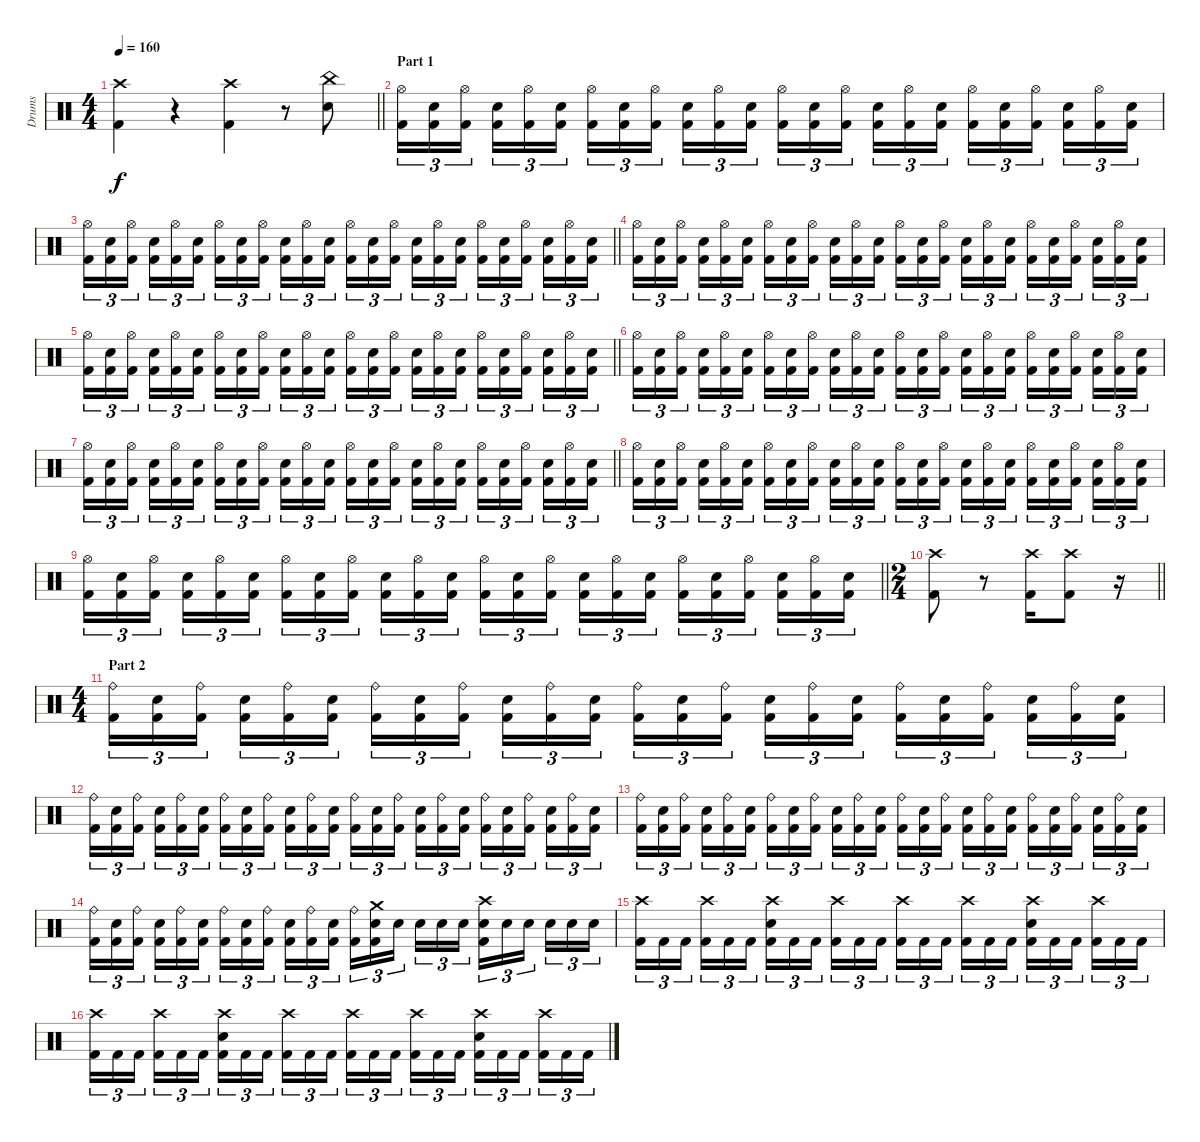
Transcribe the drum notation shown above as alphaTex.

\track ("Drums" "Drums") {instrument percussion}
\staff {score}
\articulation defaults
\ts (4 4)
\tempo 160
\clef neutral
\barLineRight lightlight
\ks c
("Crash high (hit)" "Kick (hit) 2").4{dy f} r.4 ("Crash high (hit)" "Kick (hit) 2").4 r.8 ("China (hit)" "Electric Snare (hit)").8 |
\section ("" "Part 1")
("Hi-Hat (open)" "Kick (hit) 2").16{tu (3 2)} ("Electric Snare (hit)" "Kick (hit) 2").16{tu (3 2)} ("Hi-Hat (open)" "Kick (hit) 2").16{tu (3 2) beam splitsecondary} ("Electric Snare (hit)" "Kick (hit) 2").16{tu (3 2)} ("Hi-Hat (open)" "Kick (hit) 2").16{tu (3 2)} ("Electric Snare (hit)" "Kick (hit) 2").16{tu (3 2)} ("Hi-Hat (open)" "Kick (hit) 2").16{tu (3 2)} ("Electric Snare (hit)" "Kick (hit) 2").16{tu (3 2)} ("Hi-Hat (open)" "Kick (hit) 2").16{tu (3 2) beam splitsecondary} ("Electric Snare (hit)" "Kick (hit) 2").16{tu (3 2)} ("Hi-Hat (open)" "Kick (hit) 2").16{tu (3 2)} ("Electric Snare (hit)" "Kick (hit) 2").16{tu (3 2)} ("Hi-Hat (open)" "Kick (hit) 2").16{tu (3 2)} ("Electric Snare (hit)" "Kick (hit) 2").16{tu (3 2)} ("Hi-Hat (open)" "Kick (hit) 2").16{tu (3 2) beam splitsecondary} ("Electric Snare (hit)" "Kick (hit) 2").16{tu (3 2)} ("Hi-Hat (open)" "Kick (hit) 2").16{tu (3 2)} ("Electric Snare (hit)" "Kick (hit) 2").16{tu (3 2)} ("Hi-Hat (open)" "Kick (hit) 2").16{tu (3 2)} ("Electric Snare (hit)" "Kick (hit) 2").16{tu (3 2)} ("Hi-Hat (open)" "Kick (hit) 2").16{tu (3 2) beam splitsecondary} ("Electric Snare (hit)" "Kick (hit) 2").16{tu (3 2)} ("Hi-Hat (open)" "Kick (hit) 2").16{tu (3 2)} ("Electric Snare (hit)" "Kick (hit) 2").16{tu (3 2)} |
\barLineRight lightlight
("Hi-Hat (open)" "Kick (hit) 2").16{tu (3 2)} ("Electric Snare (hit)" "Kick (hit) 2").16{tu (3 2)} ("Hi-Hat (open)" "Kick (hit) 2").16{tu (3 2) beam splitsecondary} ("Electric Snare (hit)" "Kick (hit) 2").16{tu (3 2)} ("Hi-Hat (open)" "Kick (hit) 2").16{tu (3 2)} ("Electric Snare (hit)" "Kick (hit) 2").16{tu (3 2)} ("Hi-Hat (open)" "Kick (hit) 2").16{tu (3 2)} ("Electric Snare (hit)" "Kick (hit) 2").16{tu (3 2)} ("Hi-Hat (open)" "Kick (hit) 2").16{tu (3 2) beam splitsecondary} ("Electric Snare (hit)" "Kick (hit) 2").16{tu (3 2)} ("Hi-Hat (open)" "Kick (hit) 2").16{tu (3 2)} ("Electric Snare (hit)" "Kick (hit) 2").16{tu (3 2)} ("Hi-Hat (open)" "Kick (hit) 2").16{tu (3 2)} ("Electric Snare (hit)" "Kick (hit) 2").16{tu (3 2)} ("Hi-Hat (open)" "Kick (hit) 2").16{tu (3 2) beam splitsecondary} ("Electric Snare (hit)" "Kick (hit) 2").16{tu (3 2)} ("Hi-Hat (open)" "Kick (hit) 2").16{tu (3 2)} ("Electric Snare (hit)" "Kick (hit) 2").16{tu (3 2)} ("Hi-Hat (open)" "Kick (hit) 2").16{tu (3 2)} ("Electric Snare (hit)" "Kick (hit) 2").16{tu (3 2)} ("Hi-Hat (open)" "Kick (hit) 2").16{tu (3 2) beam splitsecondary} ("Electric Snare (hit)" "Kick (hit) 2").16{tu (3 2)} ("Hi-Hat (open)" "Kick (hit) 2").16{tu (3 2)} ("Electric Snare (hit)" "Kick (hit) 2").16{tu (3 2)} |
("Hi-Hat (open)" "Kick (hit) 2").16{tu (3 2)} ("Electric Snare (hit)" "Kick (hit) 2").16{tu (3 2)} ("Hi-Hat (open)" "Kick (hit) 2").16{tu (3 2) beam splitsecondary} ("Electric Snare (hit)" "Kick (hit) 2").16{tu (3 2)} ("Hi-Hat (open)" "Kick (hit) 2").16{tu (3 2)} ("Electric Snare (hit)" "Kick (hit) 2").16{tu (3 2)} ("Hi-Hat (open)" "Kick (hit) 2").16{tu (3 2)} ("Electric Snare (hit)" "Kick (hit) 2").16{tu (3 2)} ("Hi-Hat (open)" "Kick (hit) 2").16{tu (3 2) beam splitsecondary} ("Electric Snare (hit)" "Kick (hit) 2").16{tu (3 2)} ("Hi-Hat (open)" "Kick (hit) 2").16{tu (3 2)} ("Electric Snare (hit)" "Kick (hit) 2").16{tu (3 2)} ("Hi-Hat (open)" "Kick (hit) 2").16{tu (3 2)} ("Electric Snare (hit)" "Kick (hit) 2").16{tu (3 2)} ("Hi-Hat (open)" "Kick (hit) 2").16{tu (3 2) beam splitsecondary} ("Electric Snare (hit)" "Kick (hit) 2").16{tu (3 2)} ("Hi-Hat (open)" "Kick (hit) 2").16{tu (3 2)} ("Electric Snare (hit)" "Kick (hit) 2").16{tu (3 2)} ("Hi-Hat (open)" "Kick (hit) 2").16{tu (3 2)} ("Electric Snare (hit)" "Kick (hit) 2").16{tu (3 2)} ("Hi-Hat (open)" "Kick (hit) 2").16{tu (3 2) beam splitsecondary} ("Electric Snare (hit)" "Kick (hit) 2").16{tu (3 2)} ("Hi-Hat (open)" "Kick (hit) 2").16{tu (3 2)} ("Electric Snare (hit)" "Kick (hit) 2").16{tu (3 2)} |
\barLineRight lightlight
("Hi-Hat (open)" "Kick (hit) 2").16{tu (3 2)} ("Electric Snare (hit)" "Kick (hit) 2").16{tu (3 2)} ("Hi-Hat (open)" "Kick (hit) 2").16{tu (3 2) beam splitsecondary} ("Electric Snare (hit)" "Kick (hit) 2").16{tu (3 2)} ("Hi-Hat (open)" "Kick (hit) 2").16{tu (3 2)} ("Electric Snare (hit)" "Kick (hit) 2").16{tu (3 2)} ("Hi-Hat (open)" "Kick (hit) 2").16{tu (3 2)} ("Electric Snare (hit)" "Kick (hit) 2").16{tu (3 2)} ("Hi-Hat (open)" "Kick (hit) 2").16{tu (3 2) beam splitsecondary} ("Electric Snare (hit)" "Kick (hit) 2").16{tu (3 2)} ("Hi-Hat (open)" "Kick (hit) 2").16{tu (3 2)} ("Electric Snare (hit)" "Kick (hit) 2").16{tu (3 2)} ("Hi-Hat (open)" "Kick (hit) 2").16{tu (3 2)} ("Electric Snare (hit)" "Kick (hit) 2").16{tu (3 2)} ("Hi-Hat (open)" "Kick (hit) 2").16{tu (3 2) beam splitsecondary} ("Electric Snare (hit)" "Kick (hit) 2").16{tu (3 2)} ("Hi-Hat (open)" "Kick (hit) 2").16{tu (3 2)} ("Electric Snare (hit)" "Kick (hit) 2").16{tu (3 2)} ("Hi-Hat (open)" "Kick (hit) 2").16{tu (3 2)} ("Electric Snare (hit)" "Kick (hit) 2").16{tu (3 2)} ("Hi-Hat (open)" "Kick (hit) 2").16{tu (3 2) beam splitsecondary} ("Electric Snare (hit)" "Kick (hit) 2").16{tu (3 2)} ("Hi-Hat (open)" "Kick (hit) 2").16{tu (3 2)} ("Electric Snare (hit)" "Kick (hit) 2").16{tu (3 2)} |
("Hi-Hat (open)" "Kick (hit) 2").16{tu (3 2)} ("Electric Snare (hit)" "Kick (hit) 2").16{tu (3 2)} ("Hi-Hat (open)" "Kick (hit) 2").16{tu (3 2) beam splitsecondary} ("Electric Snare (hit)" "Kick (hit) 2").16{tu (3 2)} ("Hi-Hat (open)" "Kick (hit) 2").16{tu (3 2)} ("Electric Snare (hit)" "Kick (hit) 2").16{tu (3 2)} ("Hi-Hat (open)" "Kick (hit) 2").16{tu (3 2)} ("Electric Snare (hit)" "Kick (hit) 2").16{tu (3 2)} ("Hi-Hat (open)" "Kick (hit) 2").16{tu (3 2) beam splitsecondary} ("Electric Snare (hit)" "Kick (hit) 2").16{tu (3 2)} ("Hi-Hat (open)" "Kick (hit) 2").16{tu (3 2)} ("Electric Snare (hit)" "Kick (hit) 2").16{tu (3 2)} ("Hi-Hat (open)" "Kick (hit) 2").16{tu (3 2)} ("Electric Snare (hit)" "Kick (hit) 2").16{tu (3 2)} ("Hi-Hat (open)" "Kick (hit) 2").16{tu (3 2) beam splitsecondary} ("Electric Snare (hit)" "Kick (hit) 2").16{tu (3 2)} ("Hi-Hat (open)" "Kick (hit) 2").16{tu (3 2)} ("Electric Snare (hit)" "Kick (hit) 2").16{tu (3 2)} ("Hi-Hat (open)" "Kick (hit) 2").16{tu (3 2)} ("Electric Snare (hit)" "Kick (hit) 2").16{tu (3 2)} ("Hi-Hat (open)" "Kick (hit) 2").16{tu (3 2) beam splitsecondary} ("Electric Snare (hit)" "Kick (hit) 2").16{tu (3 2)} ("Hi-Hat (open)" "Kick (hit) 2").16{tu (3 2)} ("Electric Snare (hit)" "Kick (hit) 2").16{tu (3 2)} |
\barLineRight lightlight
("Hi-Hat (open)" "Kick (hit) 2").16{tu (3 2)} ("Electric Snare (hit)" "Kick (hit) 2").16{tu (3 2)} ("Hi-Hat (open)" "Kick (hit) 2").16{tu (3 2) beam splitsecondary} ("Electric Snare (hit)" "Kick (hit) 2").16{tu (3 2)} ("Hi-Hat (open)" "Kick (hit) 2").16{tu (3 2)} ("Electric Snare (hit)" "Kick (hit) 2").16{tu (3 2)} ("Hi-Hat (open)" "Kick (hit) 2").16{tu (3 2)} ("Electric Snare (hit)" "Kick (hit) 2").16{tu (3 2)} ("Hi-Hat (open)" "Kick (hit) 2").16{tu (3 2) beam splitsecondary} ("Electric Snare (hit)" "Kick (hit) 2").16{tu (3 2)} ("Hi-Hat (open)" "Kick (hit) 2").16{tu (3 2)} ("Electric Snare (hit)" "Kick (hit) 2").16{tu (3 2)} ("Hi-Hat (open)" "Kick (hit) 2").16{tu (3 2)} ("Electric Snare (hit)" "Kick (hit) 2").16{tu (3 2)} ("Hi-Hat (open)" "Kick (hit) 2").16{tu (3 2) beam splitsecondary} ("Electric Snare (hit)" "Kick (hit) 2").16{tu (3 2)} ("Hi-Hat (open)" "Kick (hit) 2").16{tu (3 2)} ("Electric Snare (hit)" "Kick (hit) 2").16{tu (3 2)} ("Hi-Hat (open)" "Kick (hit) 2").16{tu (3 2)} ("Electric Snare (hit)" "Kick (hit) 2").16{tu (3 2)} ("Hi-Hat (open)" "Kick (hit) 2").16{tu (3 2) beam splitsecondary} ("Electric Snare (hit)" "Kick (hit) 2").16{tu (3 2)} ("Hi-Hat (open)" "Kick (hit) 2").16{tu (3 2)} ("Electric Snare (hit)" "Kick (hit) 2").16{tu (3 2)} |
("Hi-Hat (open)" "Kick (hit) 2").16{tu (3 2)} ("Electric Snare (hit)" "Kick (hit) 2").16{tu (3 2)} ("Hi-Hat (open)" "Kick (hit) 2").16{tu (3 2) beam splitsecondary} ("Electric Snare (hit)" "Kick (hit) 2").16{tu (3 2)} ("Hi-Hat (open)" "Kick (hit) 2").16{tu (3 2)} ("Electric Snare (hit)" "Kick (hit) 2").16{tu (3 2)} ("Hi-Hat (open)" "Kick (hit) 2").16{tu (3 2)} ("Electric Snare (hit)" "Kick (hit) 2").16{tu (3 2)} ("Hi-Hat (open)" "Kick (hit) 2").16{tu (3 2) beam splitsecondary} ("Electric Snare (hit)" "Kick (hit) 2").16{tu (3 2)} ("Hi-Hat (open)" "Kick (hit) 2").16{tu (3 2)} ("Electric Snare (hit)" "Kick (hit) 2").16{tu (3 2)} ("Hi-Hat (open)" "Kick (hit) 2").16{tu (3 2)} ("Electric Snare (hit)" "Kick (hit) 2").16{tu (3 2)} ("Hi-Hat (open)" "Kick (hit) 2").16{tu (3 2) beam splitsecondary} ("Electric Snare (hit)" "Kick (hit) 2").16{tu (3 2)} ("Hi-Hat (open)" "Kick (hit) 2").16{tu (3 2)} ("Electric Snare (hit)" "Kick (hit) 2").16{tu (3 2)} ("Hi-Hat (open)" "Kick (hit) 2").16{tu (3 2)} ("Electric Snare (hit)" "Kick (hit) 2").16{tu (3 2)} ("Hi-Hat (open)" "Kick (hit) 2").16{tu (3 2) beam splitsecondary} ("Electric Snare (hit)" "Kick (hit) 2").16{tu (3 2)} ("Hi-Hat (open)" "Kick (hit) 2").16{tu (3 2)} ("Electric Snare (hit)" "Kick (hit) 2").16{tu (3 2)} |
\barLineRight lightlight
("Hi-Hat (open)" "Kick (hit) 2").16{tu (3 2)} ("Electric Snare (hit)" "Kick (hit) 2").16{tu (3 2)} ("Hi-Hat (open)" "Kick (hit) 2").16{tu (3 2) beam splitsecondary} ("Electric Snare (hit)" "Kick (hit) 2").16{tu (3 2)} ("Hi-Hat (open)" "Kick (hit) 2").16{tu (3 2)} ("Electric Snare (hit)" "Kick (hit) 2").16{tu (3 2)} ("Hi-Hat (open)" "Kick (hit) 2").16{tu (3 2)} ("Electric Snare (hit)" "Kick (hit) 2").16{tu (3 2)} ("Hi-Hat (open)" "Kick (hit) 2").16{tu (3 2) beam splitsecondary} ("Electric Snare (hit)" "Kick (hit) 2").16{tu (3 2)} ("Hi-Hat (open)" "Kick (hit) 2").16{tu (3 2)} ("Electric Snare (hit)" "Kick (hit) 2").16{tu (3 2)} ("Hi-Hat (open)" "Kick (hit) 2").16{tu (3 2)} ("Electric Snare (hit)" "Kick (hit) 2").16{tu (3 2)} ("Hi-Hat (open)" "Kick (hit) 2").16{tu (3 2) beam splitsecondary} ("Electric Snare (hit)" "Kick (hit) 2").16{tu (3 2)} ("Hi-Hat (open)" "Kick (hit) 2").16{tu (3 2)} ("Electric Snare (hit)" "Kick (hit) 2").16{tu (3 2)} ("Hi-Hat (open)" "Kick (hit) 2").16{tu (3 2)} ("Electric Snare (hit)" "Kick (hit) 2").16{tu (3 2)} ("Hi-Hat (open)" "Kick (hit) 2").16{tu (3 2) beam splitsecondary} ("Electric Snare (hit)" "Kick (hit) 2").16{tu (3 2)} ("Hi-Hat (open)" "Kick (hit) 2").16{tu (3 2)} ("Electric Snare (hit)" "Kick (hit) 2").16{tu (3 2)} |
\ts (2 4)
\barLineRight lightlight
("Crash high (hit)" "Kick (hit) 2").8 r.8 ("Crash high (hit)" "Kick (hit) 2").16 ("Crash high (hit)" "Kick (hit) 2").8 r.16 |
\ts (4 4)
\section ("" "Part 2")
("Ride (bell)" "Kick (hit) 2").16{tu (3 2)} ("Electric Snare (hit)" "Kick (hit) 2").16{tu (3 2)} ("Ride (bell)" "Kick (hit) 2").16{tu (3 2) beam splitsecondary} ("Electric Snare (hit)" "Kick (hit) 2").16{tu (3 2)} ("Ride (bell)" "Kick (hit) 2").16{tu (3 2)} ("Electric Snare (hit)" "Kick (hit) 2").16{tu (3 2)} ("Ride (bell)" "Kick (hit) 2").16{tu (3 2)} ("Electric Snare (hit)" "Kick (hit) 2").16{tu (3 2)} ("Ride (bell)" "Kick (hit) 2").16{tu (3 2) beam splitsecondary} ("Electric Snare (hit)" "Kick (hit) 2").16{tu (3 2)} ("Ride (bell)" "Kick (hit) 2").16{tu (3 2)} ("Electric Snare (hit)" "Kick (hit) 2").16{tu (3 2)} ("Ride (bell)" "Kick (hit) 2").16{tu (3 2)} ("Electric Snare (hit)" "Kick (hit) 2").16{tu (3 2)} ("Ride (bell)" "Kick (hit) 2").16{tu (3 2) beam splitsecondary} ("Electric Snare (hit)" "Kick (hit) 2").16{tu (3 2)} ("Ride (bell)" "Kick (hit) 2").16{tu (3 2)} ("Electric Snare (hit)" "Kick (hit) 2").16{tu (3 2)} ("Ride (bell)" "Kick (hit) 2").16{tu (3 2)} ("Electric Snare (hit)" "Kick (hit) 2").16{tu (3 2)} ("Ride (bell)" "Kick (hit) 2").16{tu (3 2) beam splitsecondary} ("Electric Snare (hit)" "Kick (hit) 2").16{tu (3 2)} ("Ride (bell)" "Kick (hit) 2").16{tu (3 2)} ("Electric Snare (hit)" "Kick (hit) 2").16{tu (3 2)} |
("Ride (bell)" "Kick (hit) 2").16{tu (3 2)} ("Electric Snare (hit)" "Kick (hit) 2").16{tu (3 2)} ("Ride (bell)" "Kick (hit) 2").16{tu (3 2) beam splitsecondary} ("Electric Snare (hit)" "Kick (hit) 2").16{tu (3 2)} ("Ride (bell)" "Kick (hit) 2").16{tu (3 2)} ("Electric Snare (hit)" "Kick (hit) 2").16{tu (3 2)} ("Ride (bell)" "Kick (hit) 2").16{tu (3 2)} ("Electric Snare (hit)" "Kick (hit) 2").16{tu (3 2)} ("Ride (bell)" "Kick (hit) 2").16{tu (3 2) beam splitsecondary} ("Electric Snare (hit)" "Kick (hit) 2").16{tu (3 2)} ("Ride (bell)" "Kick (hit) 2").16{tu (3 2)} ("Electric Snare (hit)" "Kick (hit) 2").16{tu (3 2)} ("Ride (bell)" "Kick (hit) 2").16{tu (3 2)} ("Electric Snare (hit)" "Kick (hit) 2").16{tu (3 2)} ("Ride (bell)" "Kick (hit) 2").16{tu (3 2) beam splitsecondary} ("Electric Snare (hit)" "Kick (hit) 2").16{tu (3 2)} ("Ride (bell)" "Kick (hit) 2").16{tu (3 2)} ("Electric Snare (hit)" "Kick (hit) 2").16{tu (3 2)} ("Ride (bell)" "Kick (hit) 2").16{tu (3 2)} ("Electric Snare (hit)" "Kick (hit) 2").16{tu (3 2)} ("Ride (bell)" "Kick (hit) 2").16{tu (3 2) beam splitsecondary} ("Electric Snare (hit)" "Kick (hit) 2").16{tu (3 2)} ("Ride (bell)" "Kick (hit) 2").16{tu (3 2)} ("Electric Snare (hit)" "Kick (hit) 2").16{tu (3 2)} |
("Ride (bell)" "Kick (hit) 2").16{tu (3 2)} ("Electric Snare (hit)" "Kick (hit) 2").16{tu (3 2)} ("Ride (bell)" "Kick (hit) 2").16{tu (3 2) beam splitsecondary} ("Electric Snare (hit)" "Kick (hit) 2").16{tu (3 2)} ("Ride (bell)" "Kick (hit) 2").16{tu (3 2)} ("Electric Snare (hit)" "Kick (hit) 2").16{tu (3 2)} ("Ride (bell)" "Kick (hit) 2").16{tu (3 2)} ("Electric Snare (hit)" "Kick (hit) 2").16{tu (3 2)} ("Ride (bell)" "Kick (hit) 2").16{tu (3 2) beam splitsecondary} ("Electric Snare (hit)" "Kick (hit) 2").16{tu (3 2)} ("Ride (bell)" "Kick (hit) 2").16{tu (3 2)} ("Electric Snare (hit)" "Kick (hit) 2").16{tu (3 2)} ("Ride (bell)" "Kick (hit) 2").16{tu (3 2)} ("Electric Snare (hit)" "Kick (hit) 2").16{tu (3 2)} ("Ride (bell)" "Kick (hit) 2").16{tu (3 2) beam splitsecondary} ("Electric Snare (hit)" "Kick (hit) 2").16{tu (3 2)} ("Ride (bell)" "Kick (hit) 2").16{tu (3 2)} ("Electric Snare (hit)" "Kick (hit) 2").16{tu (3 2)} ("Ride (bell)" "Kick (hit) 2").16{tu (3 2)} ("Electric Snare (hit)" "Kick (hit) 2").16{tu (3 2)} ("Ride (bell)" "Kick (hit) 2").16{tu (3 2) beam splitsecondary} ("Electric Snare (hit)" "Kick (hit) 2").16{tu (3 2)} ("Ride (bell)" "Kick (hit) 2").16{tu (3 2)} ("Electric Snare (hit)" "Kick (hit) 2").16{tu (3 2)} |
("Ride (bell)" "Kick (hit) 2").16{tu (3 2)} ("Electric Snare (hit)" "Kick (hit) 2").16{tu (3 2)} ("Ride (bell)" "Kick (hit) 2").16{tu (3 2) beam splitsecondary} ("Electric Snare (hit)" "Kick (hit) 2").16{tu (3 2)} ("Ride (bell)" "Kick (hit) 2").16{tu (3 2)} ("Electric Snare (hit)" "Kick (hit) 2").16{tu (3 2)} ("Ride (bell)" "Kick (hit) 2").16{tu (3 2)} ("Electric Snare (hit)" "Kick (hit) 2").16{tu (3 2)} ("Ride (bell)" "Kick (hit) 2").16{tu (3 2) beam splitsecondary} ("Electric Snare (hit)" "Kick (hit) 2").16{tu (3 2)} ("Ride (bell)" "Kick (hit) 2").16{tu (3 2)} ("Electric Snare (hit)" "Kick (hit) 2").16{tu (3 2)} ("Ride (bell)" "Kick (hit) 2").16{tu (3 2)} ("Crash medium (hit)" "Electric Snare (hit)" "Kick (hit) 2").16{tu (3 2)} "Electric Snare (hit)".16{tu (3 2) beam splitsecondary} "Electric Snare (hit)".16{tu (3 2)} "Electric Snare (hit)".16{tu (3 2)} "Electric Snare (hit)".16{tu (3 2)} ("Crash high (hit)" "Electric Snare (hit)" "Kick (hit) 2").16{tu (3 2)} "Electric Snare (hit)".16{tu (3 2)} "Electric Snare (hit)".16{tu (3 2) beam splitsecondary} "Electric Snare (hit)".16{tu (3 2)} "Electric Snare (hit)".16{tu (3 2)} "Electric Snare (hit)".16{tu (3 2)} |
("Crash high (hit)" "Kick (hit) 2").16{tu (3 2)} "Kick (hit) 2".16{tu (3 2)} "Kick (hit) 2".16{tu (3 2) beam splitsecondary} ("Crash high (hit)" "Kick (hit) 2").16{tu (3 2)} "Kick (hit) 2".16{tu (3 2)} "Kick (hit) 2".16{tu (3 2)} ("Crash high (hit)" "Electric Snare (hit)" "Kick (hit) 2").16{tu (3 2)} "Kick (hit) 2".16{tu (3 2)} "Kick (hit) 2".16{tu (3 2) beam splitsecondary} ("Crash high (hit)" "Kick (hit) 2").16{tu (3 2)} "Kick (hit) 2".16{tu (3 2)} "Kick (hit) 2".16{tu (3 2)} ("Crash high (hit)" "Kick (hit) 2").16{tu (3 2)} "Kick (hit) 2".16{tu (3 2)} "Kick (hit) 2".16{tu (3 2) beam splitsecondary} ("Crash high (hit)" "Kick (hit) 2").16{tu (3 2)} "Kick (hit) 2".16{tu (3 2)} "Kick (hit) 2".16{tu (3 2)} ("Crash high (hit)" "Electric Snare (hit)" "Kick (hit) 2").16{tu (3 2)} "Kick (hit) 2".16{tu (3 2)} "Kick (hit) 2".16{tu (3 2) beam splitsecondary} ("Crash high (hit)" "Kick (hit) 2").16{tu (3 2)} "Kick (hit) 2".16{tu (3 2)} "Kick (hit) 2".16{tu (3 2)} |
("Crash high (hit)" "Kick (hit) 2").16{tu (3 2)} "Kick (hit) 2".16{tu (3 2)} "Kick (hit) 2".16{tu (3 2) beam splitsecondary} ("Crash high (hit)" "Kick (hit) 2").16{tu (3 2)} "Kick (hit) 2".16{tu (3 2)} "Kick (hit) 2".16{tu (3 2)} ("Crash high (hit)" "Electric Snare (hit)" "Kick (hit) 2").16{tu (3 2)} "Kick (hit) 2".16{tu (3 2)} "Kick (hit) 2".16{tu (3 2) beam splitsecondary} ("Crash high (hit)" "Kick (hit) 2").16{tu (3 2)} "Kick (hit) 2".16{tu (3 2)} "Kick (hit) 2".16{tu (3 2)} ("Crash high (hit)" "Kick (hit) 2").16{tu (3 2)} "Kick (hit) 2".16{tu (3 2)} "Kick (hit) 2".16{tu (3 2) beam splitsecondary} ("Crash high (hit)" "Kick (hit) 2").16{tu (3 2)} "Kick (hit) 2".16{tu (3 2)} "Kick (hit) 2".16{tu (3 2)} ("Crash high (hit)" "Electric Snare (hit)" "Kick (hit) 2").16{tu (3 2)} "Kick (hit) 2".16{tu (3 2)} "Kick (hit) 2".16{tu (3 2) beam splitsecondary} ("Crash high (hit)" "Kick (hit) 2").16{tu (3 2)} "Kick (hit) 2".16{tu (3 2)} "Kick (hit) 2".16{tu (3 2)}
